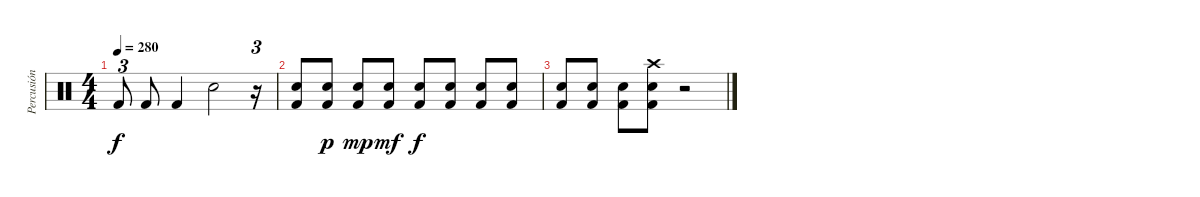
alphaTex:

\track ("Percusión" "Percusión") {instrument percussion}
\staff {score}
\articulation defaults
\ts (4 4)
\tempo 280
\clef neutral
\ks c "Kick (hit) 2".8{tu (3 2) dy f} "Kick (hit) 2".8 "Kick (hit) 2".4 "Snare (hit) 2".2
r.16{tu (3 2)} |
("Snare (hit) 2" "Kick (hit) 2").8 ("Snare (hit) 2" "Kick (hit) 2").8{dy p} ("Snare (hit) 2" "Kick (hit) 2").8{dy mp} ("Snare (hit) 2" "Kick (hit) 2").8{dy mf} ("Snare (hit) 2" "Kick (hit) 2").8{dy f} ("Snare (hit) 2" "Kick (hit) 2").8 ("Snare (hit) 2" "Kick (hit) 2").8 ("Snare (hit) 2" "Kick (hit) 2").8 |
("Snare (hit) 2" "Kick (hit) 2").8 ("Snare (hit) 2" "Kick (hit) 2").8 ("Snare (hit) 2" "Kick (hit) 2").8 ("Snare (hit) 2" "Crash high (hit)" "Kick (hit) 2").8 r.2
